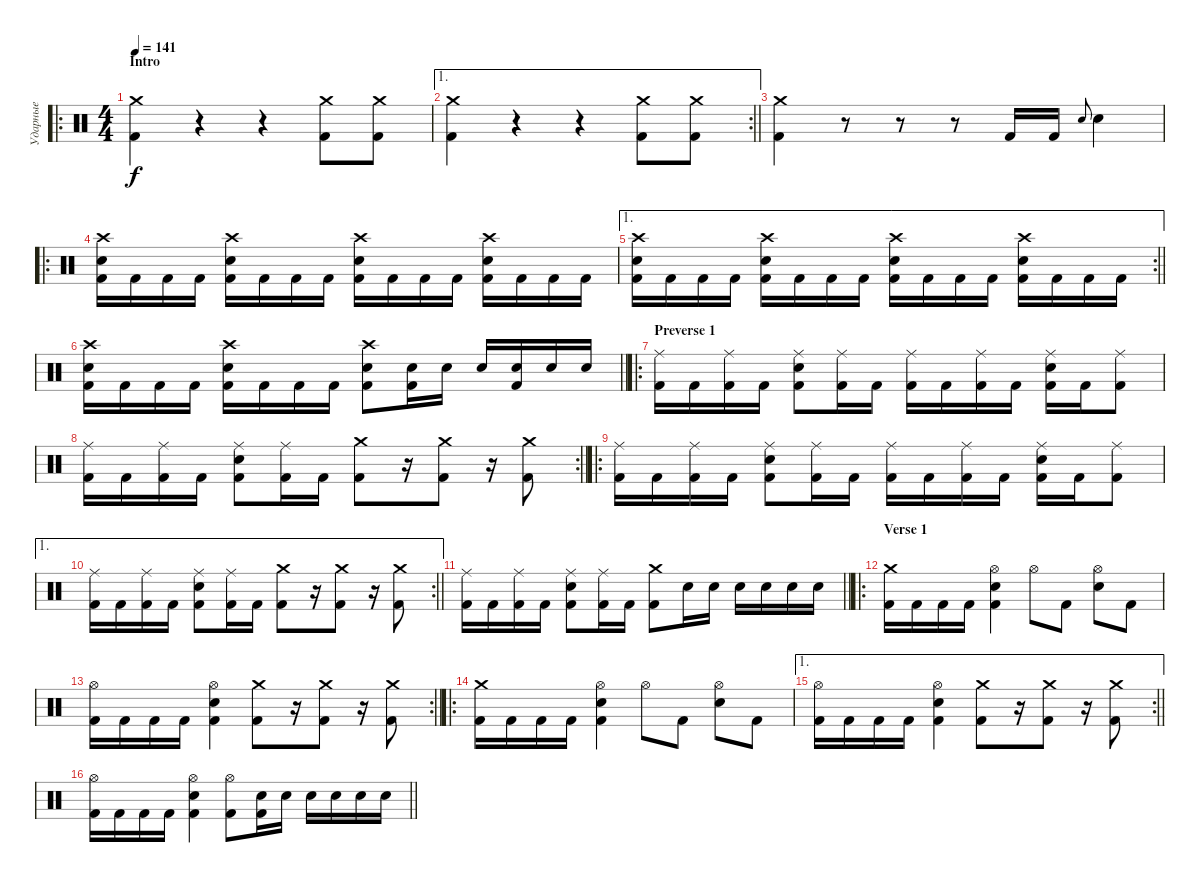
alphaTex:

\track ("Ударные" "Ударные") {instrument percussion}
\staff {score}
\articulation defaults
\ro
\ts (4 4)
\section ("" "Intro")
\tempo 141
\clef neutral
\ks c
("Crash medium (hit)" "Kick (hit) 2").4{dy f} r.4 r.4 ("Crash medium (hit)" "Kick (hit) 2").8 ("Crash medium (hit)" "Kick (hit) 2").8 |
\ae 1
\rc 2
\barLineRight lightlight
("Crash medium (hit)" "Kick (hit) 2").4 r.4 r.4 ("Crash medium (hit)" "Kick (hit) 2").8 ("Crash medium (hit)" "Kick (hit) 2").8 |
("Crash medium (hit)" "Kick (hit) 2").4 r.8 r.8 r.8 "Kick (hit) 2".16 "Kick (hit) 2".16 "Electric Snare (hit)".8{gr onbeat} "Electric Snare (hit)".4 |
\ro
("Crash high (hit)" "Electric Snare (hit)" "Kick (hit) 2").16 "Kick (hit) 2".16 "Kick (hit) 2".16 "Kick (hit) 2".16 ("Crash high (hit)" "Electric Snare (hit)" "Kick (hit) 2").16 "Kick (hit) 2".16 "Kick (hit) 2".16 "Kick (hit) 2".16 ("Crash high (hit)" "Electric Snare (hit)" "Kick (hit) 2").16 "Kick (hit) 2".16 "Kick (hit) 2".16 "Kick (hit) 2".16 ("Crash high (hit)" "Electric Snare (hit)" "Kick (hit) 2").16 "Kick (hit) 2".16 "Kick (hit) 2".16 "Kick (hit) 2".16 |
\ae 1
\rc 2
\barLineRight lightlight
("Crash high (hit)" "Electric Snare (hit)" "Kick (hit) 2").16 "Kick (hit) 2".16 "Kick (hit) 2".16 "Kick (hit) 2".16 ("Crash high (hit)" "Electric Snare (hit)" "Kick (hit) 2").16 "Kick (hit) 2".16 "Kick (hit) 2".16 "Kick (hit) 2".16 ("Crash high (hit)" "Electric Snare (hit)" "Kick (hit) 2").16 "Kick (hit) 2".16 "Kick (hit) 2".16 "Kick (hit) 2".16 ("Crash high (hit)" "Electric Snare (hit)" "Kick (hit) 2").16 "Kick (hit) 2".16 "Kick (hit) 2".16 "Kick (hit) 2".16 |
\barLineRight lightlight
("Crash high (hit)" "Electric Snare (hit)" "Kick (hit) 2").16 "Kick (hit) 2".16 "Kick (hit) 2".16 "Kick (hit) 2".16 ("Crash high (hit)" "Electric Snare (hit)" "Kick (hit) 2").16 "Kick (hit) 2".16 "Kick (hit) 2".16 "Kick (hit) 2".16 ("Crash high (hit)" "Electric Snare (hit)" "Kick (hit) 2").8 ("Electric Snare (hit)" "Kick (hit) 2").16 "Electric Snare (hit)".16 "Electric Snare (hit)".16 ("Electric Snare (hit)" "Kick (hit) 2").16 "Electric Snare (hit)".16 "Electric Snare (hit)".16 |
\ro
\section ("" "Preverse 1")
("Ride (middle)" "Kick (hit) 2").16 "Kick (hit) 2".16 ("Ride (middle)" "Kick (hit) 2").16 "Kick (hit) 2".16 ("Ride (middle)" "Electric Snare (hit)" "Kick (hit) 2").8 ("Ride (middle)" "Kick (hit) 2").16 "Kick (hit) 2".16 ("Ride (middle)" "Kick (hit) 2").16 "Kick (hit) 2".16 ("Ride (middle)" "Kick (hit) 2").16 "Kick (hit) 2".16 ("Ride (middle)" "Electric Snare (hit)" "Kick (hit) 2").16 "Kick (hit) 2".16 ("Ride (middle)" "Kick (hit) 2").8 |
\rc 2
\barLineRight lightlight
("Ride (middle)" "Kick (hit) 2").16 "Kick (hit) 2".16 ("Ride (middle)" "Kick (hit) 2").16 "Kick (hit) 2".16 ("Ride (middle)" "Electric Snare (hit)" "Kick (hit) 2").8 ("Ride (middle)" "Kick (hit) 2").16 "Kick (hit) 2".16 ("Crash medium (hit)" "Kick (hit) 2").8 r.16 ("Crash medium (hit)" "Kick (hit) 2").8 r.16 ("Crash medium (hit)" "Kick (hit) 2").8 |
\ro
("Ride (middle)" "Kick (hit) 2").16 "Kick (hit) 2".16 ("Ride (middle)" "Kick (hit) 2").16 "Kick (hit) 2".16 ("Ride (middle)" "Electric Snare (hit)" "Kick (hit) 2").8 ("Ride (middle)" "Kick (hit) 2").16 "Kick (hit) 2".16 ("Ride (middle)" "Kick (hit) 2").16 "Kick (hit) 2".16 ("Ride (middle)" "Kick (hit) 2").16 "Kick (hit) 2".16 ("Ride (middle)" "Electric Snare (hit)" "Kick (hit) 2").16 "Kick (hit) 2".16 ("Ride (middle)" "Kick (hit) 2").8 |
\ae 1
\rc 2
\barLineRight lightlight
("Ride (middle)" "Kick (hit) 2").16 "Kick (hit) 2".16 ("Ride (middle)" "Kick (hit) 2").16 "Kick (hit) 2".16 ("Ride (middle)" "Electric Snare (hit)" "Kick (hit) 2").8 ("Ride (middle)" "Kick (hit) 2").16 "Kick (hit) 2".16 ("Crash medium (hit)" "Kick (hit) 2").8 r.16 ("Crash medium (hit)" "Kick (hit) 2").8 r.16 ("Crash medium (hit)" "Kick (hit) 2").8 |
\barLineRight lightlight
("Ride (middle)" "Kick (hit) 2").16 "Kick (hit) 2".16 ("Ride (middle)" "Kick (hit) 2").16 "Kick (hit) 2".16 ("Ride (middle)" "Electric Snare (hit)" "Kick (hit) 2").8 ("Ride (middle)" "Kick (hit) 2").16 "Kick (hit) 2".16 ("Crash medium (hit)" "Kick (hit) 2").8 "Electric Snare (hit)".16 "Electric Snare (hit)".16 "Electric Snare (hit)".16 "Electric Snare (hit)".16 "Electric Snare (hit)".16 "Electric Snare (hit)".16 |
\ro
\section ("" "Verse 1")
("Crash medium (hit)" "Kick (hit) 2").16 "Kick (hit) 2".16 "Kick (hit) 2".16 "Kick (hit) 2".16 ("Hi-Hat (open)" "Electric Snare (hit)" "Kick (hit) 2").4 "Hi-Hat (open)".8 "Kick (hit) 2".8 ("Hi-Hat (open)" "Electric Snare (hit)").8 "Kick (hit) 2".8 |
\rc 2
\barLineRight lightlight
("Hi-Hat (open)" "Kick (hit) 2").16 "Kick (hit) 2".16 "Kick (hit) 2".16 "Kick (hit) 2".16 ("Hi-Hat (open)" "Electric Snare (hit)" "Kick (hit) 2").4 ("Crash medium (hit)" "Kick (hit) 2").8 r.16 ("Crash medium (hit)" "Kick (hit) 2").8 r.16 ("Crash medium (hit)" "Kick (hit) 2").8 |
\ro
("Crash medium (hit)" "Kick (hit) 2").16 "Kick (hit) 2".16 "Kick (hit) 2".16 "Kick (hit) 2".16 ("Hi-Hat (open)" "Electric Snare (hit)" "Kick (hit) 2").4 "Hi-Hat (open)".8 "Kick (hit) 2".8 ("Hi-Hat (open)" "Electric Snare (hit)").8 "Kick (hit) 2".8 |
\ae 1
\rc 2
\barLineRight lightlight
("Hi-Hat (open)" "Kick (hit) 2").16 "Kick (hit) 2".16 "Kick (hit) 2".16 "Kick (hit) 2".16 ("Hi-Hat (open)" "Electric Snare (hit)" "Kick (hit) 2").4 ("Crash medium (hit)" "Kick (hit) 2").8 r.16 ("Crash medium (hit)" "Kick (hit) 2").8 r.16 ("Crash medium (hit)" "Kick (hit) 2").8 |
\barLineRight lightlight
("Hi-Hat (open)" "Kick (hit) 2").16 "Kick (hit) 2".16 "Kick (hit) 2".16 "Kick (hit) 2".16 ("Hi-Hat (open)" "Electric Snare (hit)" "Kick (hit) 2").4 ("Hi-Hat (open)" "Kick (hit) 2").8 ("Electric Snare (hit)" "Kick (hit) 2").16 "Electric Snare (hit)".16 "Electric Snare (hit)".16 "Electric Snare (hit)".16 "Electric Snare (hit)".16 "Electric Snare (hit)".16
